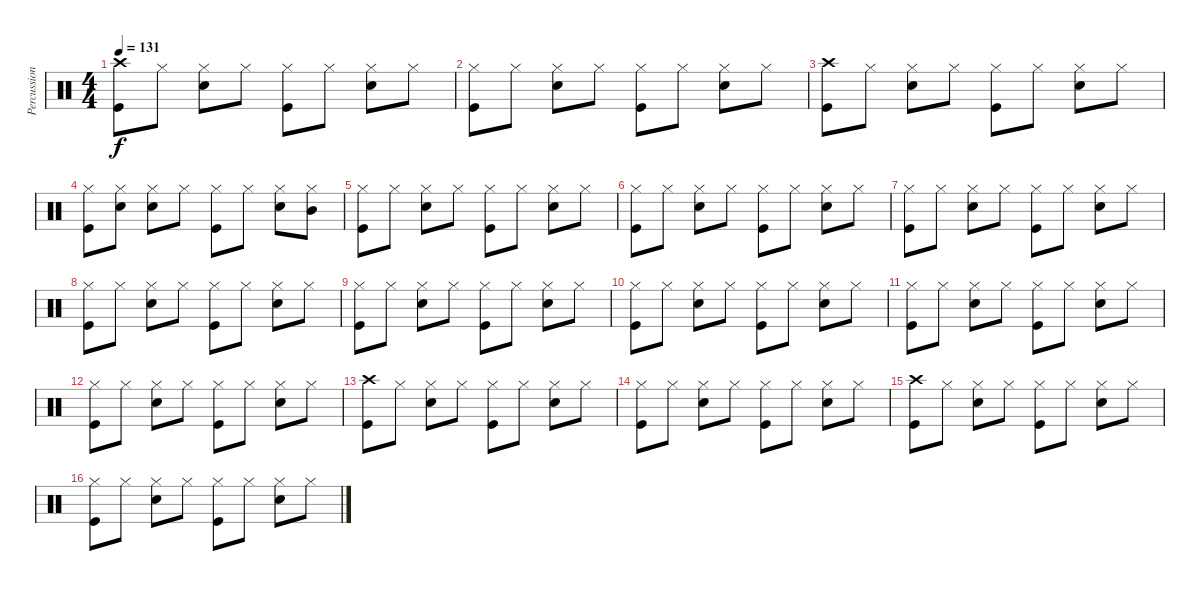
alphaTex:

\track ("Percussion" "Percussion") {instrument percussion}
\staff {score}
\articulation defaults
\ts (4 4)
\tempo 131
\clef neutral
\ks c
("Crash high (hit)" "Kick (hit)").8{dy f} "Hi-Hat (closed)".8 ("Hi-Hat (closed)" "Snare (hit) 2").8 "Hi-Hat (closed)".8 ("Hi-Hat (closed)" "Kick (hit)").8 "Hi-Hat (closed)".8 ("Hi-Hat (closed)" "Snare (hit) 2").8 "Hi-Hat (closed)".8 |
("Hi-Hat (closed)" "Kick (hit)").8 "Hi-Hat (closed)".8 ("Hi-Hat (closed)" "Snare (hit) 2").8 "Hi-Hat (closed)".8 ("Hi-Hat (closed)" "Kick (hit)").8 "Hi-Hat (closed)".8 ("Hi-Hat (closed)" "Snare (hit) 2").8 "Hi-Hat (closed)".8 |
("Crash high (hit)" "Kick (hit)").8 "Hi-Hat (closed)".8 ("Hi-Hat (closed)" "Snare (hit) 2").8 "Hi-Hat (closed)".8 ("Hi-Hat (closed)" "Kick (hit)").8 "Hi-Hat (closed)".8 ("Hi-Hat (closed)" "Snare (hit) 2").8 "Hi-Hat (closed)".8 |
("Hi-Hat (closed)" "Kick (hit)").8 ("Hi-Hat (closed)" "Snare (hit) 2").8 ("Hi-Hat (closed)" "Snare (hit) 2").8 "Hi-Hat (closed)".8 ("Hi-Hat (closed)" "Kick (hit)").8 "Hi-Hat (closed)".8 ("Hi-Hat (closed)" "Snare (hit) 2").8 ("Hi-Hat (closed)" "Mid Tom (hit)").8 |
("Hi-Hat (closed)" "Kick (hit)").8 "Hi-Hat (closed)".8 ("Hi-Hat (closed)" "Snare (hit) 2").8 "Hi-Hat (closed)".8 ("Hi-Hat (closed)" "Kick (hit)").8 "Hi-Hat (closed)".8 ("Hi-Hat (closed)" "Snare (hit) 2").8 "Hi-Hat (closed)".8 |
("Hi-Hat (closed)" "Kick (hit)").8 "Hi-Hat (closed)".8 ("Hi-Hat (closed)" "Snare (hit) 2").8 "Hi-Hat (closed)".8 ("Hi-Hat (closed)" "Kick (hit)").8 "Hi-Hat (closed)".8 ("Hi-Hat (closed)" "Snare (hit) 2").8 "Hi-Hat (closed)".8 |
("Hi-Hat (closed)" "Kick (hit)").8 "Hi-Hat (closed)".8 ("Hi-Hat (closed)" "Snare (hit) 2").8 "Hi-Hat (closed)".8 ("Hi-Hat (closed)" "Kick (hit)").8 "Hi-Hat (closed)".8 ("Hi-Hat (closed)" "Snare (hit) 2").8 "Hi-Hat (closed)".8 |
("Hi-Hat (closed)" "Kick (hit)").8 "Hi-Hat (closed)".8 ("Hi-Hat (closed)" "Snare (hit) 2").8 "Hi-Hat (closed)".8 ("Hi-Hat (closed)" "Kick (hit)").8 "Hi-Hat (closed)".8 ("Hi-Hat (closed)" "Snare (hit) 2").8 "Hi-Hat (closed)".8 |
("Hi-Hat (closed)" "Kick (hit)").8 "Hi-Hat (closed)".8 ("Hi-Hat (closed)" "Snare (hit) 2").8 "Hi-Hat (closed)".8 ("Hi-Hat (closed)" "Kick (hit)").8 "Hi-Hat (closed)".8 ("Hi-Hat (closed)" "Snare (hit) 2").8 "Hi-Hat (closed)".8 |
("Hi-Hat (closed)" "Kick (hit)").8 "Hi-Hat (closed)".8 ("Hi-Hat (closed)" "Snare (hit) 2").8 "Hi-Hat (closed)".8 ("Hi-Hat (closed)" "Kick (hit)").8 "Hi-Hat (closed)".8 ("Hi-Hat (closed)" "Snare (hit) 2").8 "Hi-Hat (closed)".8 |
("Hi-Hat (closed)" "Kick (hit)").8 "Hi-Hat (closed)".8 ("Hi-Hat (closed)" "Snare (hit) 2").8 "Hi-Hat (closed)".8 ("Hi-Hat (closed)" "Kick (hit)").8 "Hi-Hat (closed)".8 ("Hi-Hat (closed)" "Snare (hit) 2").8 "Hi-Hat (closed)".8 |
("Hi-Hat (closed)" "Kick (hit)").8 "Hi-Hat (closed)".8 ("Hi-Hat (closed)" "Snare (hit) 2").8 "Hi-Hat (closed)".8 ("Hi-Hat (closed)" "Kick (hit)").8 "Hi-Hat (closed)".8 ("Hi-Hat (closed)" "Snare (hit) 2").8 "Hi-Hat (closed)".8 |
("Crash high (hit)" "Kick (hit)").8 "Hi-Hat (closed)".8 ("Hi-Hat (closed)" "Snare (hit) 2").8 "Hi-Hat (closed)".8 ("Hi-Hat (closed)" "Kick (hit)").8 "Hi-Hat (closed)".8 ("Hi-Hat (closed)" "Snare (hit) 2").8 "Hi-Hat (closed)".8 |
("Hi-Hat (closed)" "Kick (hit)").8 "Hi-Hat (closed)".8 ("Hi-Hat (closed)" "Snare (hit) 2").8 "Hi-Hat (closed)".8 ("Hi-Hat (closed)" "Kick (hit)").8 "Hi-Hat (closed)".8 ("Hi-Hat (closed)" "Snare (hit) 2").8 "Hi-Hat (closed)".8 |
("Crash high (hit)" "Kick (hit)").8 "Hi-Hat (closed)".8 ("Hi-Hat (closed)" "Snare (hit) 2").8 "Hi-Hat (closed)".8 ("Hi-Hat (closed)" "Kick (hit)").8 "Hi-Hat (closed)".8 ("Hi-Hat (closed)" "Snare (hit) 2").8 "Hi-Hat (closed)".8 |
("Hi-Hat (closed)" "Kick (hit)").8 "Hi-Hat (closed)".8 ("Hi-Hat (closed)" "Snare (hit) 2").8 "Hi-Hat (closed)".8 ("Hi-Hat (closed)" "Kick (hit)").8 "Hi-Hat (closed)".8 ("Hi-Hat (closed)" "Snare (hit) 2").8 "Hi-Hat (closed)".8
